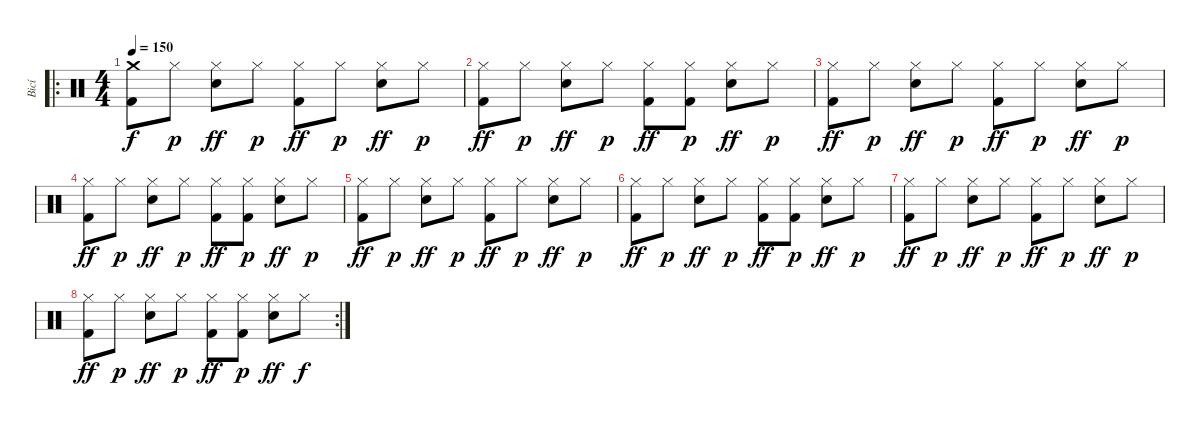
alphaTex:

\track ("Bicí" "Bicí") {solo instrument percussion}
\staff {score}
\articulation defaults
\ro
\ts (4 4)
\tempo 150
\clef neutral
\ks c
("Crash medium (hit)" "Kick (hit) 2").8{dy f} "Hi-Hat (closed)".8{dy p} ("Hi-Hat (closed)" "Electric Snare (hit)").8{dy ff} "Hi-Hat (closed)".8{dy p} ("Hi-Hat (closed)" "Kick (hit) 2").8{dy ff} "Hi-Hat (closed)".8{dy p} ("Hi-Hat (closed)" "Electric Snare (hit)").8{dy ff} "Hi-Hat (closed)".8{dy p} |
("Hi-Hat (closed)" "Kick (hit) 2").8{dy ff} "Hi-Hat (closed)".8{dy p} ("Hi-Hat (closed)" "Electric Snare (hit)").8{dy ff} "Hi-Hat (closed)".8{dy p} ("Hi-Hat (closed)" "Kick (hit) 2").8{dy ff} ("Hi-Hat (closed)" "Kick (hit) 2").8{dy p} ("Hi-Hat (closed)" "Electric Snare (hit)").8{dy ff} "Hi-Hat (closed)".8{dy p} |
("Hi-Hat (closed)" "Kick (hit) 2").8{dy ff} "Hi-Hat (closed)".8{dy p} ("Hi-Hat (closed)" "Electric Snare (hit)").8{dy ff} "Hi-Hat (closed)".8{dy p} ("Hi-Hat (closed)" "Kick (hit) 2").8{dy ff} "Hi-Hat (closed)".8{dy p} ("Hi-Hat (closed)" "Electric Snare (hit)").8{dy ff} "Hi-Hat (closed)".8{dy p} |
("Hi-Hat (closed)" "Kick (hit) 2").8{dy ff} "Hi-Hat (closed)".8{dy p} ("Hi-Hat (closed)" "Electric Snare (hit)").8{dy ff} "Hi-Hat (closed)".8{dy p} ("Hi-Hat (closed)" "Kick (hit) 2").8{dy ff} ("Hi-Hat (closed)" "Kick (hit) 2").8{dy p} ("Hi-Hat (closed)" "Electric Snare (hit)").8{dy ff} "Hi-Hat (closed)".8{dy p} |
("Hi-Hat (closed)" "Kick (hit) 2").8{dy ff} "Hi-Hat (closed)".8{dy p} ("Hi-Hat (closed)" "Electric Snare (hit)").8{dy ff} "Hi-Hat (closed)".8{dy p} ("Hi-Hat (closed)" "Kick (hit) 2").8{dy ff} "Hi-Hat (closed)".8{dy p} ("Hi-Hat (closed)" "Electric Snare (hit)").8{dy ff} "Hi-Hat (closed)".8{dy p} |
("Hi-Hat (closed)" "Kick (hit) 2").8{dy ff} "Hi-Hat (closed)".8{dy p} ("Hi-Hat (closed)" "Electric Snare (hit)").8{dy ff} "Hi-Hat (closed)".8{dy p} ("Hi-Hat (closed)" "Kick (hit) 2").8{dy ff} ("Hi-Hat (closed)" "Kick (hit) 2").8{dy p} ("Hi-Hat (closed)" "Electric Snare (hit)").8{dy ff} "Hi-Hat (closed)".8{dy p} |
("Hi-Hat (closed)" "Kick (hit) 2").8{dy ff} "Hi-Hat (closed)".8{dy p} ("Hi-Hat (closed)" "Electric Snare (hit)").8{dy ff} "Hi-Hat (closed)".8{dy p} ("Hi-Hat (closed)" "Kick (hit) 2").8{dy ff} "Hi-Hat (closed)".8{dy p} ("Hi-Hat (closed)" "Electric Snare (hit)").8{dy ff} "Hi-Hat (closed)".8{dy p} |
\rc 2
("Hi-Hat (closed)" "Kick (hit) 2").8{dy ff} "Hi-Hat (closed)".8{dy p} ("Hi-Hat (closed)" "Electric Snare (hit)").8{dy ff} "Hi-Hat (closed)".8{dy p} ("Hi-Hat (closed)" "Kick (hit) 2").8{dy ff} ("Hi-Hat (closed)" "Kick (hit) 2").8{dy p} ("Hi-Hat (closed)" "Electric Snare (hit)").8{dy ff} "Hi-Hat (closed)".8{dy f}
